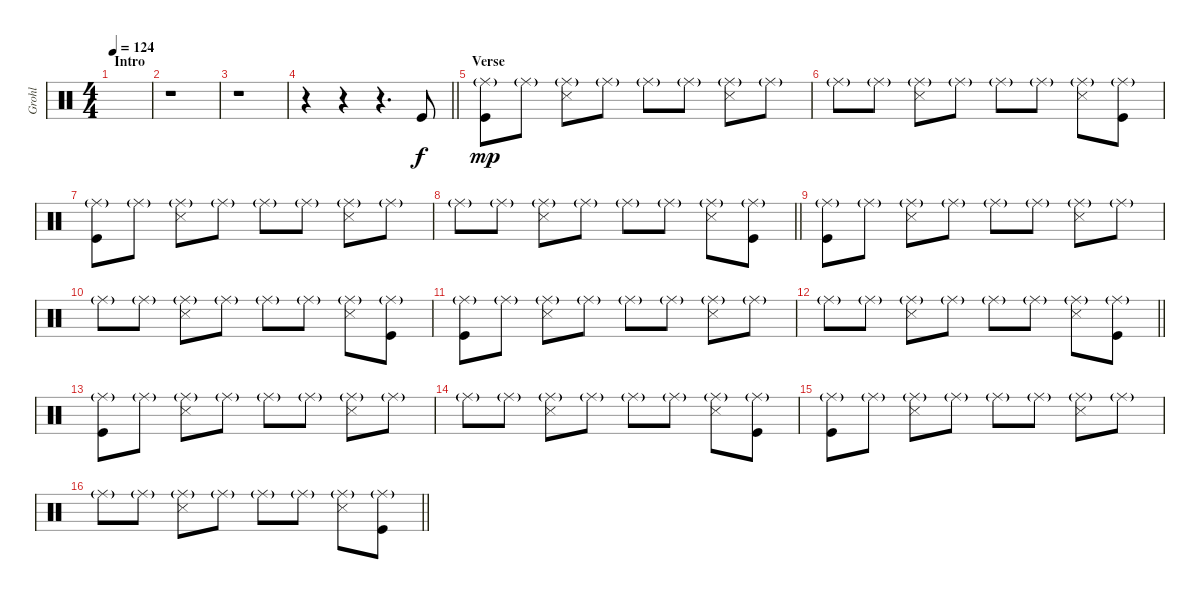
\track ("Grohl" "Grohl") {instrument percussion}
\staff {score}
\articulation defaults
\ts (4 4)
\section ("" "Intro")
\tempo 124
\clef neutral
\ks c
|
r.1 |
r.1 |
\barLineRight lightlight
r.4 r.4 r.4{d} "Kick (hit)".8 |
\section ("" "Verse")
("Ride (middle)"{g} "Kick (hit)").8{dy mp} "Ride (middle)"{g}.8 ("Ride (middle)"{g} "Snare (side stick) 3").8 "Ride (middle)"{g}.8 "Ride (middle)"{g}.8 "Ride (middle)"{g}.8 ("Ride (middle)"{g} "Snare (side stick) 3").8 "Ride (middle)"{g}.8 |
"Ride (middle)"{g}.8 "Ride (middle)"{g}.8 ("Ride (middle)"{g} "Snare (side stick) 3").8 "Ride (middle)"{g}.8 "Ride (middle)"{g}.8 "Ride (middle)"{g}.8 ("Ride (middle)"{g} "Snare (side stick) 3").8 ("Ride (middle)"{g} "Kick (hit)").8 |
("Ride (middle)"{g} "Kick (hit)").8 "Ride (middle)"{g}.8 ("Ride (middle)"{g} "Snare (side stick) 3").8 "Ride (middle)"{g}.8 "Ride (middle)"{g}.8 "Ride (middle)"{g}.8 ("Ride (middle)"{g} "Snare (side stick) 3").8 "Ride (middle)"{g}.8 |
\barLineRight lightlight "Ride (middle)"{g}.8 "Ride (middle)"{g}.8
("Ride (middle)"{g} "Snare (side stick) 3").8 "Ride (middle)"{g}.8 "Ride (middle)"{g}.8 "Ride (middle)"{g}.8 ("Ride (middle)"{g} "Snare (side stick) 3").8 ("Ride (middle)"{g} "Kick (hit)").8 |
("Ride (middle)"{g} "Kick (hit)").8 "Ride (middle)"{g}.8 ("Ride (middle)"{g} "Snare (side stick) 3").8 "Ride (middle)"{g}.8 "Ride (middle)"{g}.8 "Ride (middle)"{g}.8 ("Ride (middle)"{g} "Snare (side stick) 3").8 "Ride (middle)"{g}.8 |
"Ride (middle)"{g}.8 "Ride (middle)"{g}.8 ("Ride (middle)"{g} "Snare (side stick) 3").8 "Ride (middle)"{g}.8 "Ride (middle)"{g}.8 "Ride (middle)"{g}.8 ("Ride (middle)"{g} "Snare (side stick) 3").8 ("Ride (middle)"{g} "Kick (hit)").8 |
("Ride (middle)"{g} "Kick (hit)").8 "Ride (middle)"{g}.8 ("Ride (middle)"{g} "Snare (side stick) 3").8 "Ride (middle)"{g}.8 "Ride (middle)"{g}.8 "Ride (middle)"{g}.8 ("Ride (middle)"{g} "Snare (side stick) 3").8 "Ride (middle)"{g}.8 |
\barLineRight lightlight "Ride (middle)"{g}.8 "Ride (middle)"{g}.8
("Ride (middle)"{g} "Snare (side stick) 3").8 "Ride (middle)"{g}.8 "Ride (middle)"{g}.8 "Ride (middle)"{g}.8 ("Ride (middle)"{g} "Snare (side stick) 3").8 ("Ride (middle)"{g} "Kick (hit)").8 |
("Ride (middle)"{g} "Kick (hit)").8 "Ride (middle)"{g}.8 ("Ride (middle)"{g} "Snare (side stick) 3").8 "Ride (middle)"{g}.8 "Ride (middle)"{g}.8 "Ride (middle)"{g}.8 ("Ride (middle)"{g} "Snare (side stick) 3").8 "Ride (middle)"{g}.8 |
"Ride (middle)"{g}.8 "Ride (middle)"{g}.8 ("Ride (middle)"{g} "Snare (side stick) 3").8 "Ride (middle)"{g}.8 "Ride (middle)"{g}.8 "Ride (middle)"{g}.8 ("Ride (middle)"{g} "Snare (side stick) 3").8 ("Ride (middle)"{g} "Kick (hit)").8 |
("Ride (middle)"{g} "Kick (hit)").8 "Ride (middle)"{g}.8 ("Ride (middle)"{g} "Snare (side stick) 3").8 "Ride (middle)"{g}.8 "Ride (middle)"{g}.8 "Ride (middle)"{g}.8 ("Ride (middle)"{g} "Snare (side stick) 3").8 "Ride (middle)"{g}.8 |
\barLineRight lightlight "Ride (middle)"{g}.8 "Ride (middle)"{g}.8
("Ride (middle)"{g} "Snare (side stick) 3").8 "Ride (middle)"{g}.8 "Ride (middle)"{g}.8 "Ride (middle)"{g}.8 ("Ride (middle)"{g} "Snare (side stick) 3").8 ("Ride (middle)"{g} "Kick (hit)").8
